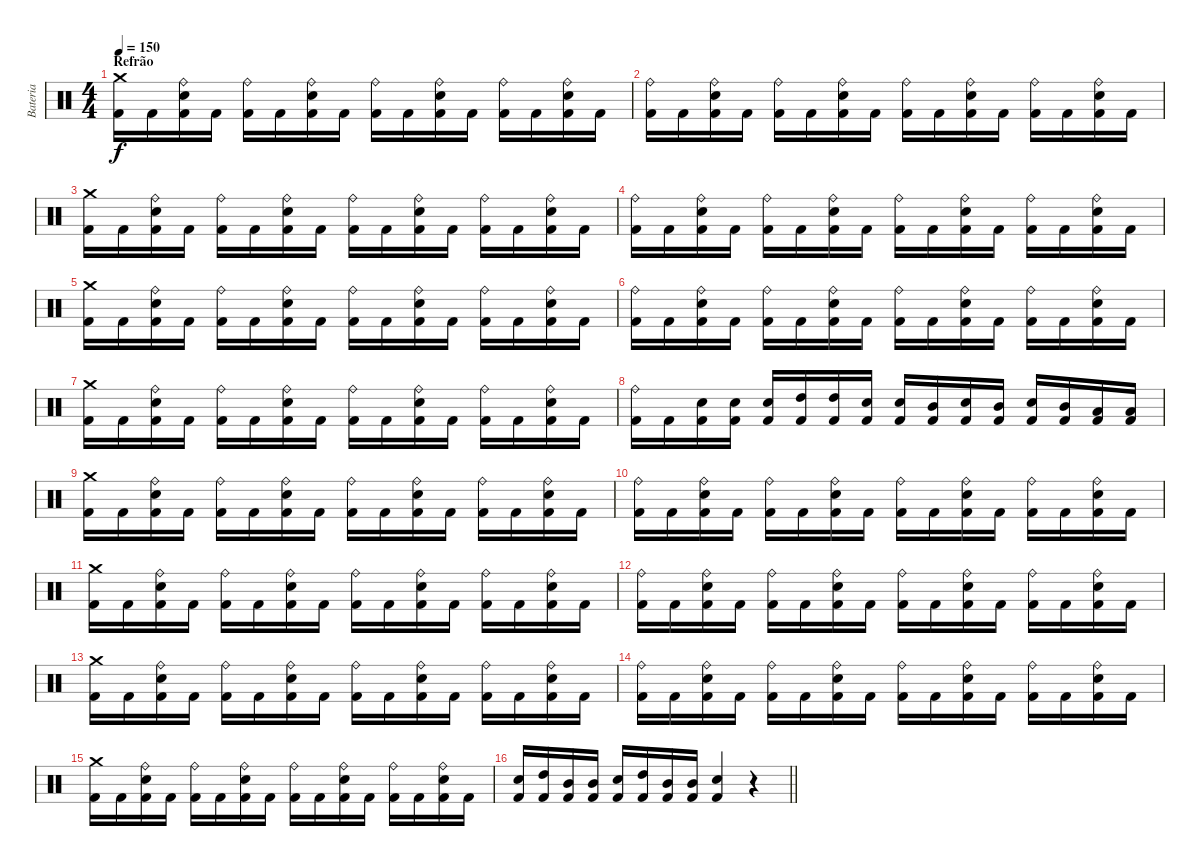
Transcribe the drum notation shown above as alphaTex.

\track ("Bateria" "Bateria") {instrument percussion}
\staff {score}
\articulation defaults
\ts (4 4)
\section ("" "Refrão")
\tempo 150
\clef neutral
\ks c
("Crash medium (hit)" "Kick (hit) 2").16{dy f} "Kick (hit) 2".16 ("Ride (bell)" "Electric Snare (hit)" "Kick (hit) 2").16 "Kick (hit) 2".16 ("Ride (bell)" "Kick (hit) 2").16 "Kick (hit) 2".16 ("Ride (bell)" "Electric Snare (hit)" "Kick (hit) 2").16 "Kick (hit) 2".16 ("Ride (bell)" "Kick (hit) 2").16 "Kick (hit) 2".16 ("Ride (bell)" "Electric Snare (hit)" "Kick (hit) 2").16 "Kick (hit) 2".16 ("Ride (bell)" "Kick (hit) 2").16 "Kick (hit) 2".16 ("Ride (bell)" "Electric Snare (hit)" "Kick (hit) 2").16 "Kick (hit) 2".16 |
("Ride (bell)" "Kick (hit) 2").16 "Kick (hit) 2".16 ("Ride (bell)" "Electric Snare (hit)" "Kick (hit) 2").16 "Kick (hit) 2".16 ("Ride (bell)" "Kick (hit) 2").16 "Kick (hit) 2".16 ("Ride (bell)" "Electric Snare (hit)" "Kick (hit) 2").16 "Kick (hit) 2".16 ("Ride (bell)" "Kick (hit) 2").16 "Kick (hit) 2".16 ("Ride (bell)" "Electric Snare (hit)" "Kick (hit) 2").16 "Kick (hit) 2".16 ("Ride (bell)" "Kick (hit) 2").16 "Kick (hit) 2".16 ("Ride (bell)" "Electric Snare (hit)" "Kick (hit) 2").16 "Kick (hit) 2".16 |
("Crash medium (hit)" "Kick (hit) 2").16 "Kick (hit) 2".16 ("Ride (bell)" "Electric Snare (hit)" "Kick (hit) 2").16 "Kick (hit) 2".16 ("Ride (bell)" "Kick (hit) 2").16 "Kick (hit) 2".16 ("Ride (bell)" "Electric Snare (hit)" "Kick (hit) 2").16 "Kick (hit) 2".16 ("Ride (bell)" "Kick (hit) 2").16 "Kick (hit) 2".16 ("Ride (bell)" "Electric Snare (hit)" "Kick (hit) 2").16 "Kick (hit) 2".16 ("Ride (bell)" "Kick (hit) 2").16 "Kick (hit) 2".16 ("Ride (bell)" "Electric Snare (hit)" "Kick (hit) 2").16 "Kick (hit) 2".16 |
("Ride (bell)" "Kick (hit) 2").16 "Kick (hit) 2".16 ("Ride (bell)" "Electric Snare (hit)" "Kick (hit) 2").16 "Kick (hit) 2".16 ("Ride (bell)" "Kick (hit) 2").16 "Kick (hit) 2".16 ("Ride (bell)" "Electric Snare (hit)" "Kick (hit) 2").16 "Kick (hit) 2".16 ("Ride (bell)" "Kick (hit) 2").16 "Kick (hit) 2".16 ("Ride (bell)" "Electric Snare (hit)" "Kick (hit) 2").16 "Kick (hit) 2".16 ("Ride (bell)" "Kick (hit) 2").16 "Kick (hit) 2".16 ("Ride (bell)" "Electric Snare (hit)" "Kick (hit) 2").16 "Kick (hit) 2".16 |
("Crash medium (hit)" "Kick (hit) 2").16 "Kick (hit) 2".16 ("Ride (bell)" "Electric Snare (hit)" "Kick (hit) 2").16 "Kick (hit) 2".16 ("Ride (bell)" "Kick (hit) 2").16 "Kick (hit) 2".16 ("Ride (bell)" "Electric Snare (hit)" "Kick (hit) 2").16 "Kick (hit) 2".16 ("Ride (bell)" "Kick (hit) 2").16 "Kick (hit) 2".16 ("Ride (bell)" "Electric Snare (hit)" "Kick (hit) 2").16 "Kick (hit) 2".16 ("Ride (bell)" "Kick (hit) 2").16 "Kick (hit) 2".16 ("Ride (bell)" "Electric Snare (hit)" "Kick (hit) 2").16 "Kick (hit) 2".16 |
("Ride (bell)" "Kick (hit) 2").16 "Kick (hit) 2".16 ("Ride (bell)" "Electric Snare (hit)" "Kick (hit) 2").16 "Kick (hit) 2".16 ("Ride (bell)" "Kick (hit) 2").16 "Kick (hit) 2".16 ("Ride (bell)" "Electric Snare (hit)" "Kick (hit) 2").16 "Kick (hit) 2".16 ("Ride (bell)" "Kick (hit) 2").16 "Kick (hit) 2".16 ("Ride (bell)" "Electric Snare (hit)" "Kick (hit) 2").16 "Kick (hit) 2".16 ("Ride (bell)" "Kick (hit) 2").16 "Kick (hit) 2".16 ("Ride (bell)" "Electric Snare (hit)" "Kick (hit) 2").16 "Kick (hit) 2".16 |
("Crash medium (hit)" "Kick (hit) 2").16 "Kick (hit) 2".16 ("Ride (bell)" "Electric Snare (hit)" "Kick (hit) 2").16 "Kick (hit) 2".16 ("Ride (bell)" "Kick (hit) 2").16 "Kick (hit) 2".16 ("Ride (bell)" "Electric Snare (hit)" "Kick (hit) 2").16 "Kick (hit) 2".16 ("Ride (bell)" "Kick (hit) 2").16 "Kick (hit) 2".16 ("Ride (bell)" "Electric Snare (hit)" "Kick (hit) 2").16 "Kick (hit) 2".16 ("Ride (bell)" "Kick (hit) 2").16 "Kick (hit) 2".16 ("Ride (bell)" "Electric Snare (hit)" "Kick (hit) 2").16 "Kick (hit) 2".16 |
("Ride (bell)" "Kick (hit) 2").16 "Kick (hit) 2".16 ("Electric Snare (hit)" "Kick (hit) 2").16 ("Electric Snare (hit)" "Kick (hit) 2").16 ("Electric Snare (hit)" "Kick (hit) 2").16 ("High Tom (hit)" "Kick (hit) 2").16 ("High Tom (hit)" "Kick (hit) 2").16 ("Electric Snare (hit)" "Kick (hit) 2").16 ("Electric Snare (hit)" "Kick (hit) 2").16 ("Mid Tom (hit)" "Kick (hit) 2").16 ("Electric Snare (hit)" "Kick (hit) 2").16 ("Mid Tom (hit)" "Kick (hit) 2").16 ("Electric Snare (hit)" "Kick (hit) 2").16 ("Mid Tom (hit)" "Kick (hit) 2").16 ("Low Tom (hit)" "Kick (hit) 2").16 ("Low Tom (hit)" "Kick (hit) 2").16 |
("Crash medium (hit)" "Kick (hit) 2").16 "Kick (hit) 2".16 ("Ride (bell)" "Electric Snare (hit)" "Kick (hit) 2").16 "Kick (hit) 2".16 ("Ride (bell)" "Kick (hit) 2").16 "Kick (hit) 2".16 ("Ride (bell)" "Electric Snare (hit)" "Kick (hit) 2").16 "Kick (hit) 2".16 ("Ride (bell)" "Kick (hit) 2").16 "Kick (hit) 2".16 ("Ride (bell)" "Electric Snare (hit)" "Kick (hit) 2").16 "Kick (hit) 2".16 ("Ride (bell)" "Kick (hit) 2").16 "Kick (hit) 2".16 ("Ride (bell)" "Electric Snare (hit)" "Kick (hit) 2").16 "Kick (hit) 2".16 |
("Ride (bell)" "Kick (hit) 2").16 "Kick (hit) 2".16 ("Ride (bell)" "Electric Snare (hit)" "Kick (hit) 2").16 "Kick (hit) 2".16 ("Ride (bell)" "Kick (hit) 2").16 "Kick (hit) 2".16 ("Ride (bell)" "Electric Snare (hit)" "Kick (hit) 2").16 "Kick (hit) 2".16 ("Ride (bell)" "Kick (hit) 2").16 "Kick (hit) 2".16 ("Ride (bell)" "Electric Snare (hit)" "Kick (hit) 2").16 "Kick (hit) 2".16 ("Ride (bell)" "Kick (hit) 2").16 "Kick (hit) 2".16 ("Ride (bell)" "Electric Snare (hit)" "Kick (hit) 2").16 "Kick (hit) 2".16 |
("Crash medium (hit)" "Kick (hit) 2").16 "Kick (hit) 2".16 ("Ride (bell)" "Electric Snare (hit)" "Kick (hit) 2").16 "Kick (hit) 2".16 ("Ride (bell)" "Kick (hit) 2").16 "Kick (hit) 2".16 ("Ride (bell)" "Electric Snare (hit)" "Kick (hit) 2").16 "Kick (hit) 2".16 ("Ride (bell)" "Kick (hit) 2").16 "Kick (hit) 2".16 ("Ride (bell)" "Electric Snare (hit)" "Kick (hit) 2").16 "Kick (hit) 2".16 ("Ride (bell)" "Kick (hit) 2").16 "Kick (hit) 2".16 ("Ride (bell)" "Electric Snare (hit)" "Kick (hit) 2").16 "Kick (hit) 2".16 |
("Ride (bell)" "Kick (hit) 2").16 "Kick (hit) 2".16 ("Ride (bell)" "Electric Snare (hit)" "Kick (hit) 2").16 "Kick (hit) 2".16 ("Ride (bell)" "Kick (hit) 2").16 "Kick (hit) 2".16 ("Ride (bell)" "Electric Snare (hit)" "Kick (hit) 2").16 "Kick (hit) 2".16 ("Ride (bell)" "Kick (hit) 2").16 "Kick (hit) 2".16 ("Ride (bell)" "Electric Snare (hit)" "Kick (hit) 2").16 "Kick (hit) 2".16 ("Ride (bell)" "Kick (hit) 2").16 "Kick (hit) 2".16 ("Ride (bell)" "Electric Snare (hit)" "Kick (hit) 2").16 "Kick (hit) 2".16 |
("Crash medium (hit)" "Kick (hit) 2").16 "Kick (hit) 2".16 ("Ride (bell)" "Electric Snare (hit)" "Kick (hit) 2").16 "Kick (hit) 2".16 ("Ride (bell)" "Kick (hit) 2").16 "Kick (hit) 2".16 ("Ride (bell)" "Electric Snare (hit)" "Kick (hit) 2").16 "Kick (hit) 2".16 ("Ride (bell)" "Kick (hit) 2").16 "Kick (hit) 2".16 ("Ride (bell)" "Electric Snare (hit)" "Kick (hit) 2").16 "Kick (hit) 2".16 ("Ride (bell)" "Kick (hit) 2").16 "Kick (hit) 2".16 ("Ride (bell)" "Electric Snare (hit)" "Kick (hit) 2").16 "Kick (hit) 2".16 |
("Ride (bell)" "Kick (hit) 2").16 "Kick (hit) 2".16 ("Ride (bell)" "Electric Snare (hit)" "Kick (hit) 2").16 "Kick (hit) 2".16 ("Ride (bell)" "Kick (hit) 2").16 "Kick (hit) 2".16 ("Ride (bell)" "Electric Snare (hit)" "Kick (hit) 2").16 "Kick (hit) 2".16 ("Ride (bell)" "Kick (hit) 2").16 "Kick (hit) 2".16 ("Ride (bell)" "Electric Snare (hit)" "Kick (hit) 2").16 "Kick (hit) 2".16 ("Ride (bell)" "Kick (hit) 2").16 "Kick (hit) 2".16 ("Ride (bell)" "Electric Snare (hit)" "Kick (hit) 2").16 "Kick (hit) 2".16 |
("Crash medium (hit)" "Kick (hit) 2").16 "Kick (hit) 2".16 ("Ride (bell)" "Electric Snare (hit)" "Kick (hit) 2").16 "Kick (hit) 2".16 ("Ride (bell)" "Kick (hit) 2").16 "Kick (hit) 2".16 ("Ride (bell)" "Electric Snare (hit)" "Kick (hit) 2").16 "Kick (hit) 2".16 ("Ride (bell)" "Kick (hit) 2").16 "Kick (hit) 2".16 ("Ride (bell)" "Electric Snare (hit)" "Kick (hit) 2").16 "Kick (hit) 2".16 ("Ride (bell)" "Kick (hit) 2").16 "Kick (hit) 2".16 ("Ride (bell)" "Electric Snare (hit)" "Kick (hit) 2").16 "Kick (hit) 2".16 |
\barLineRight lightlight
("Electric Snare (hit)" "Kick (hit) 2").16 ("High Tom (hit)" "Kick (hit) 2").16 ("Mid Tom (hit)" "Kick (hit) 2").16 ("Mid Tom (hit)" "Kick (hit) 2").16 ("Electric Snare (hit)" "Kick (hit) 2").16 ("High Tom (hit)" "Kick (hit) 2").16 ("Mid Tom (hit)" "Kick (hit) 2").16 ("Mid Tom (hit)" "Kick (hit) 2").16 ("Electric Snare (hit)" "Kick (hit) 2").4 r.4
